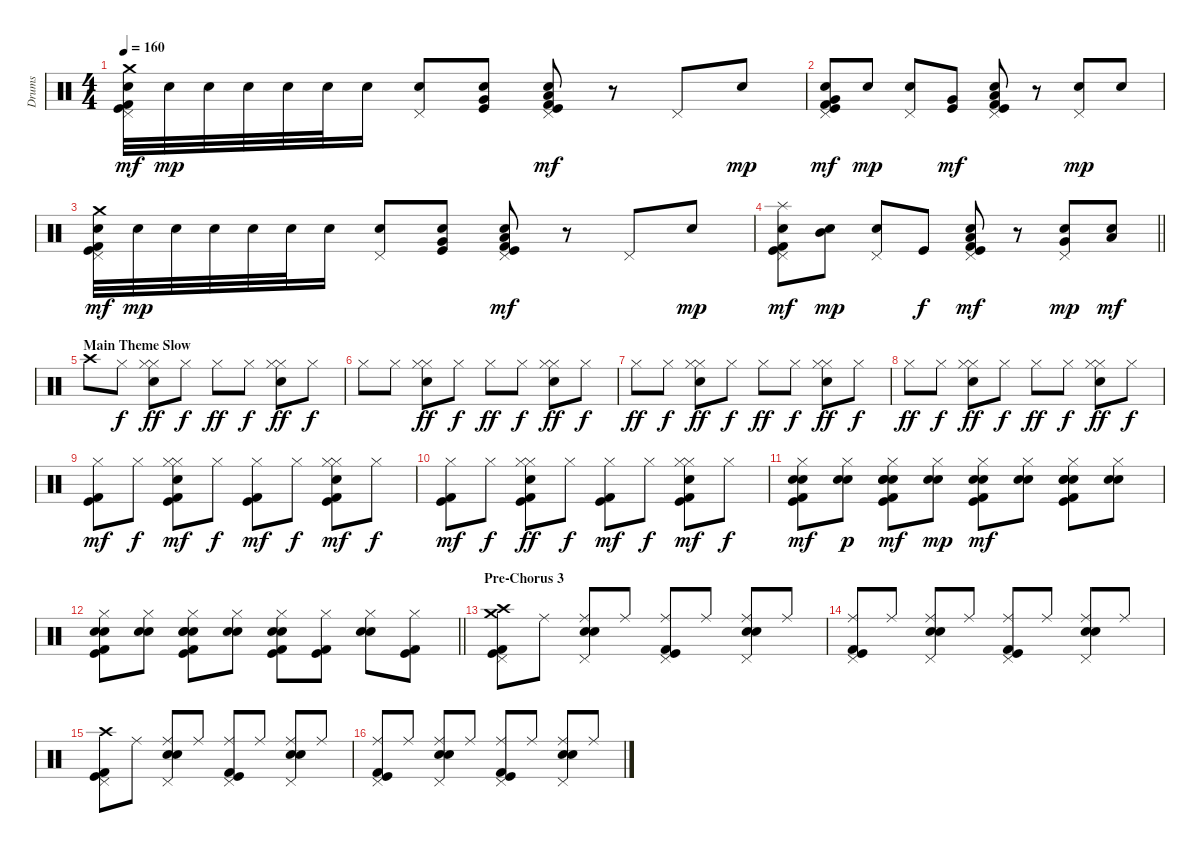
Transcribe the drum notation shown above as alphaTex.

\track ("Drums" "Drums") {instrument percussion}
\staff {score}
\articulation defaults
\ts (4 4)
\tempo 160
\clef neutral
\ks c
("Crash medium (hit)" "Pedal Hi-Hat (hit)" "Electric Snare (hit)" "Kick (hit) 2" "Kick (hit)").32{dy mf} "Electric Snare (hit)".32{dy mp} "Electric Snare (hit)".32 "Electric Snare (hit)".32 "Electric Snare (hit)".32 "Electric Snare (hit)".32 "Electric Snare (hit)".16 ("Pedal Hi-Hat (hit)" "Electric Snare (hit)").8 ("Very Low Tom (hit)" "Electric Snare (hit)" "Kick (hit)").8 ("Pedal Hi-Hat (hit)" "Low Tom (hit)" "Electric Snare (hit)" "Kick (hit) 2" "Kick (hit)").8{dy mf} r.8 "Pedal Hi-Hat (hit)".8 "Electric Snare (hit)".8{dy mp} |
("Pedal Hi-Hat (hit)" "Very Low Tom (hit)" "Electric Snare (hit)" "Kick (hit) 2" "Kick (hit)").8{dy mf} "Electric Snare (hit)".8{dy mp} ("Pedal Hi-Hat (hit)" "Electric Snare (hit)").8 ("Very Low Tom (hit)" "Kick (hit)").8{dy mf} ("Pedal Hi-Hat (hit)" "Low Tom (hit)" "Electric Snare (hit)" "Kick (hit) 2" "Kick (hit)").8 r.8 ("Pedal Hi-Hat (hit)" "Electric Snare (hit)").8{dy mp} "Electric Snare (hit)".8 |
("Crash medium (hit)" "Pedal Hi-Hat (hit)" "Electric Snare (hit)" "Kick (hit) 2" "Kick (hit)").32{dy mf} "Electric Snare (hit)".32{dy mp} "Electric Snare (hit)".32 "Electric Snare (hit)".32 "Electric Snare (hit)".32 "Electric Snare (hit)".32 "Electric Snare (hit)".16 ("Pedal Hi-Hat (hit)" "Electric Snare (hit)").8 ("Very Low Tom (hit)" "Electric Snare (hit)" "Kick (hit)").8 ("Pedal Hi-Hat (hit)" "Low Tom (hit)" "Electric Snare (hit)" "Kick (hit) 2" "Kick (hit)").8{dy mf} r.8 "Pedal Hi-Hat (hit)".8 "Electric Snare (hit)".8{dy mp} |
\barLineRight lightlight
("Splash (hit)" "Pedal Hi-Hat (hit)" "Electric Snare (hit)" "Kick (hit) 2" "Kick (hit)").8{dy mf} ("Mid Tom (hit)" "Electric Snare (hit)").8{dy mp} ("Pedal Hi-Hat (hit)" "Electric Snare (hit)").8 "Kick (hit)".8{dy f} ("Pedal Hi-Hat (hit)" "Low Tom (hit)" "Electric Snare (hit)" "Kick (hit) 2" "Kick (hit)").8{dy mf} r.8 ("Pedal Hi-Hat (hit)" "Very Low Tom (hit)" "Electric Snare (hit)").8{dy mp} ("Low Floor Tom (hit)" "Electric Snare (hit)").8{dy mf} |
\section ("" "Main Theme Slow")
"Crash high (hit)".8 "Hi-Hat (closed)".8{dy f} ("Hi-Hat (closed)" "Hi-Hat (closed)" "Hand Clap (hit)").8{dy ff} "Hi-Hat (closed)".8{dy f} "Hi-Hat (closed)".8{dy ff} "Hi-Hat (closed)".8{dy f} ("Hi-Hat (closed)" "Hi-Hat (closed)" "Hand Clap (hit)").8{dy ff} "Hi-Hat (closed)".8{dy f} |
"Hi-Hat (closed)".8 "Hi-Hat (closed)".8 ("Hi-Hat (closed)" "Hi-Hat (closed)" "Hand Clap (hit)").8{dy ff} "Hi-Hat (closed)".8{dy f} "Hi-Hat (closed)".8{dy ff} "Hi-Hat (closed)".8{dy f} ("Hi-Hat (closed)" "Hi-Hat (closed)" "Hand Clap (hit)").8{dy ff} "Hi-Hat (closed)".8{dy f} |
"Hi-Hat (closed)".8{dy ff} "Hi-Hat (closed)".8{dy f} ("Hi-Hat (closed)" "Hi-Hat (closed)" "Hand Clap (hit)").8{dy ff} "Hi-Hat (closed)".8{dy f} "Hi-Hat (closed)".8{dy ff} "Hi-Hat (closed)".8{dy f} ("Hi-Hat (closed)" "Hi-Hat (closed)" "Hand Clap (hit)").8{dy ff} "Hi-Hat (closed)".8{dy f} |
"Hi-Hat (closed)".8{dy ff} "Hi-Hat (closed)".8{dy f} ("Hi-Hat (closed)" "Hi-Hat (closed)" "Hand Clap (hit)").8{dy ff} "Hi-Hat (closed)".8{dy f} "Hi-Hat (closed)".8{dy ff} "Hi-Hat (closed)".8{dy f} ("Hi-Hat (closed)" "Hi-Hat (closed)" "Hand Clap (hit)").8{dy ff} "Hi-Hat (closed)".8{dy f} |
("Hi-Hat (closed)" "Kick (hit) 2" "Kick (hit)").8{dy mf} "Hi-Hat (closed)".8{dy f} ("Hi-Hat (closed)" "Hand Clap (hit)" "Hi-Hat (closed)" "Kick (hit) 2" "Kick (hit)").8{dy mf} "Hi-Hat (closed)".8{dy f} ("Hi-Hat (closed)" "Kick (hit) 2" "Kick (hit)").8{dy mf} "Hi-Hat (closed)".8{dy f} ("Hi-Hat (closed)" "Hand Clap (hit)" "Hi-Hat (closed)" "Kick (hit) 2" "Kick (hit)").8{dy mf} "Hi-Hat (closed)".8{dy f} |
("Hi-Hat (closed)" "Kick (hit) 2" "Kick (hit)").8{dy mf} "Hi-Hat (closed)".8{dy f} ("Hi-Hat (closed)" "Hand Clap (hit)" "Hi-Hat (closed)" "Kick (hit) 2" "Kick (hit)").8{dy ff} "Hi-Hat (closed)".8{dy f} ("Hi-Hat (closed)" "Kick (hit) 2" "Kick (hit)").8{dy mf} "Hi-Hat (closed)".8{dy f} ("Hi-Hat (closed)" "Hand Clap (hit)" "Hi-Hat (closed)" "Kick (hit) 2" "Kick (hit)").8{dy mf} "Hi-Hat (closed)".8{dy f} |
("Hi-Hat (closed)" "Kick (hit) 2" "Snare (hit) 2" "Electric Snare (hit)" "Kick (hit)").8{dy mf} ("Hi-Hat (closed)" "Snare (hit) 2" "Electric Snare (hit)").8{dy p} ("Kick (hit) 2" "Hand Clap (hit)" "Hi-Hat (closed)" "Snare (hit) 2" "Electric Snare (hit)" "Kick (hit)").8{dy mf} ("Hi-Hat (closed)" "Snare (hit) 2" "Electric Snare (hit)").8{dy mp} ("Hi-Hat (closed)" "Kick (hit) 2" "Snare (hit) 2" "Electric Snare (hit)" "Kick (hit)").8{dy mf} ("Hi-Hat (closed)" "Snare (hit) 2" "Electric Snare (hit)").8 ("Kick (hit) 2" "Hand Clap (hit)" "Hi-Hat (closed)" "Snare (hit) 2" "Electric Snare (hit)" "Kick (hit)").8 ("Hi-Hat (closed)" "Snare (hit) 2" "Electric Snare (hit)").8 |
\barLineRight lightlight
("Hi-Hat (closed)" "Kick (hit) 2" "Snare (hit) 2" "Electric Snare (hit)" "Kick (hit)").8 ("Hi-Hat (closed)" "Snare (hit) 2" "Electric Snare (hit)").8 ("Kick (hit) 2" "Hi-Hat (closed)" "Hand Clap (hit)" "Snare (hit) 2" "Electric Snare (hit)" "Kick (hit)").8 ("Hi-Hat (closed)" "Snare (hit) 2" "Electric Snare (hit)").8 ("Hi-Hat (closed)" "Kick (hit) 2" "Snare (hit) 2" "Electric Snare (hit)" "Kick (hit)").8 ("Hi-Hat (closed)" "Kick (hit) 2" "Kick (hit)").8 ("Hi-Hat (closed)" "Snare (hit) 2" "Electric Snare (hit)").8 ("Hi-Hat (closed)" "Kick (hit) 2" "Kick (hit)").8 |
\section ("" "Pre-Chorus 3")
("Crash high (hit)" "Crash medium (hit)" "Pedal Hi-Hat (hit)" "Kick (hit) 2" "Kick (hit)").8 "Ride (middle)".8 ("Ride (middle)" "Pedal Hi-Hat (hit)" "Snare (hit) 2" "Electric Snare (hit)").8 "Ride (middle)".8 ("Ride (middle)" "Pedal Hi-Hat (hit)" "Kick (hit) 2" "Kick (hit)").8 "Ride (middle)".8 ("Ride (middle)" "Pedal Hi-Hat (hit)" "Snare (hit) 2" "Electric Snare (hit)").8 "Ride (middle)".8 |
("Ride (middle)" "Pedal Hi-Hat (hit)" "Kick (hit) 2" "Kick (hit)").8 "Ride (middle)".8 ("Ride (middle)" "Pedal Hi-Hat (hit)" "Snare (hit) 2" "Electric Snare (hit)").8 "Ride (middle)".8 ("Ride (middle)" "Pedal Hi-Hat (hit)" "Kick (hit) 2" "Kick (hit)").8 "Ride (middle)".8 ("Ride (middle)" "Pedal Hi-Hat (hit)" "Snare (hit) 2" "Electric Snare (hit)").8 "Ride (middle)".8 |
("Crash high (hit)" "Pedal Hi-Hat (hit)" "Kick (hit) 2" "Kick (hit)").8 "Ride (middle)".8 ("Ride (middle)" "Pedal Hi-Hat (hit)" "Snare (hit) 2" "Electric Snare (hit)").8 "Ride (middle)".8 ("Ride (middle)" "Pedal Hi-Hat (hit)" "Kick (hit) 2" "Kick (hit)").8 "Ride (middle)".8 ("Ride (middle)" "Pedal Hi-Hat (hit)" "Snare (hit) 2" "Electric Snare (hit)").8 "Ride (middle)".8 |
("Ride (middle)" "Pedal Hi-Hat (hit)" "Kick (hit) 2" "Kick (hit)").8 "Ride (middle)".8 ("Ride (middle)" "Pedal Hi-Hat (hit)" "Snare (hit) 2" "Electric Snare (hit)").8 "Ride (middle)".8 ("Ride (middle)" "Pedal Hi-Hat (hit)" "Kick (hit) 2" "Kick (hit)").8 "Ride (middle)".8 ("Ride (middle)" "Pedal Hi-Hat (hit)" "Snare (hit) 2" "Electric Snare (hit)").8 "Ride (middle)".8
